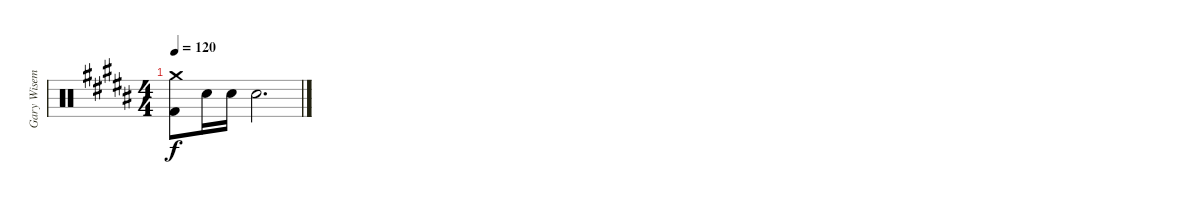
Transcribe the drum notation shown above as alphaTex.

\track ("Gary Wiseman - Drums" "Gary Wisem") {instrument percussion}
\staff {score}
\articulation defaults
\ts (4 4)
\tempo 120
\clef neutral
\ks b
("Crash medium (hit)" "Kick (hit) 2").8{dy f} "Electric Snare (hit)".16 "Electric Snare (hit)".16 "Electric Snare (hit)".2{d}
